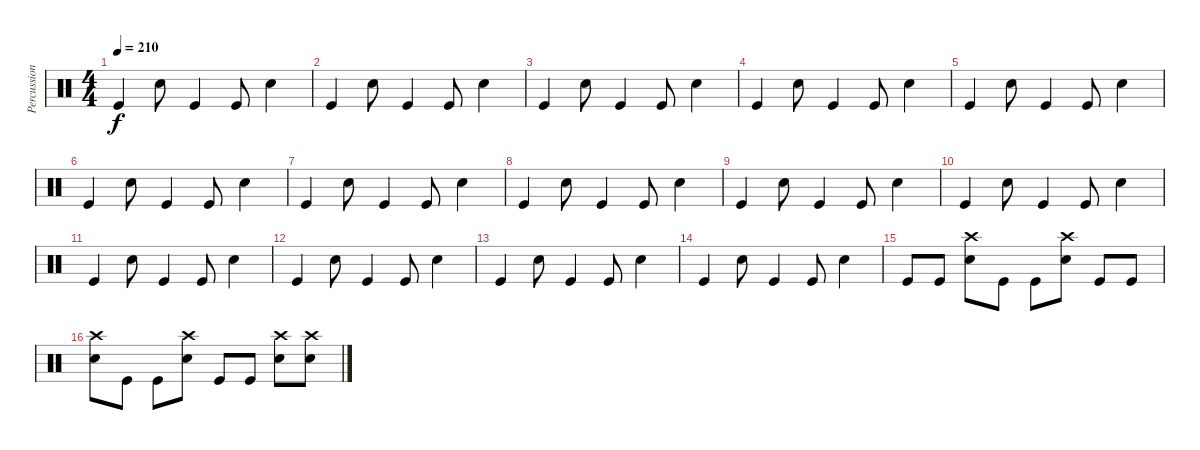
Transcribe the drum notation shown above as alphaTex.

\track ("Percussion" "Percussion") {instrument percussion}
\staff {score}
\articulation defaults
\ts (4 4)
\tempo 210
\clef neutral
\ks c "Kick (hit)".4{dy f} "Snare (hit) 2".8 "Kick (hit)".4 "Kick (hit)".8 "Snare (hit) 2".4
|
"Kick (hit)".4 "Snare (hit) 2".8 "Kick (hit)".4 "Kick (hit)".8 "Snare (hit) 2".4 |
"Kick (hit)".4 "Snare (hit) 2".8 "Kick (hit)".4 "Kick (hit)".8 "Snare (hit) 2".4 |
"Kick (hit)".4 "Snare (hit) 2".8 "Kick (hit)".4 "Kick (hit)".8 "Snare (hit) 2".4 |
"Kick (hit)".4 "Snare (hit) 2".8 "Kick (hit)".4 "Kick (hit)".8 "Snare (hit) 2".4 |
"Kick (hit)".4 "Snare (hit) 2".8 "Kick (hit)".4 "Kick (hit)".8 "Snare (hit) 2".4 |
"Kick (hit)".4 "Snare (hit) 2".8 "Kick (hit)".4 "Kick (hit)".8 "Snare (hit) 2".4 |
"Kick (hit)".4 "Snare (hit) 2".8 "Kick (hit)".4 "Kick (hit)".8 "Snare (hit) 2".4 |
"Kick (hit)".4 "Snare (hit) 2".8 "Kick (hit)".4 "Kick (hit)".8 "Snare (hit) 2".4 |
"Kick (hit)".4 "Snare (hit) 2".8 "Kick (hit)".4 "Kick (hit)".8 "Snare (hit) 2".4 |
"Kick (hit)".4 "Snare (hit) 2".8 "Kick (hit)".4 "Kick (hit)".8 "Snare (hit) 2".4 |
"Kick (hit)".4 "Snare (hit) 2".8 "Kick (hit)".4 "Kick (hit)".8 "Snare (hit) 2".4 |
"Kick (hit)".4 "Snare (hit) 2".8 "Kick (hit)".4 "Kick (hit)".8 "Snare (hit) 2".4 |
"Kick (hit)".4 "Snare (hit) 2".8 "Kick (hit)".4 "Kick (hit)".8 "Snare (hit) 2".4 |
"Kick (hit)".8 "Kick (hit)".8 ("Snare (hit) 2" "Crash high (hit)").8 "Kick (hit)".8 "Kick (hit)".8 ("Snare (hit) 2" "Crash high (hit)").8 "Kick (hit)".8 "Kick (hit)".8 |
("Snare (hit) 2" "Crash high (hit)").8 "Kick (hit)".8 "Kick (hit)".8 ("Snare (hit) 2" "Crash high (hit)").8 "Kick (hit)".8 "Kick (hit)".8 ("Snare (hit) 2" "Crash high (hit)").8 ("Snare (hit) 2" "Crash high (hit)").8
